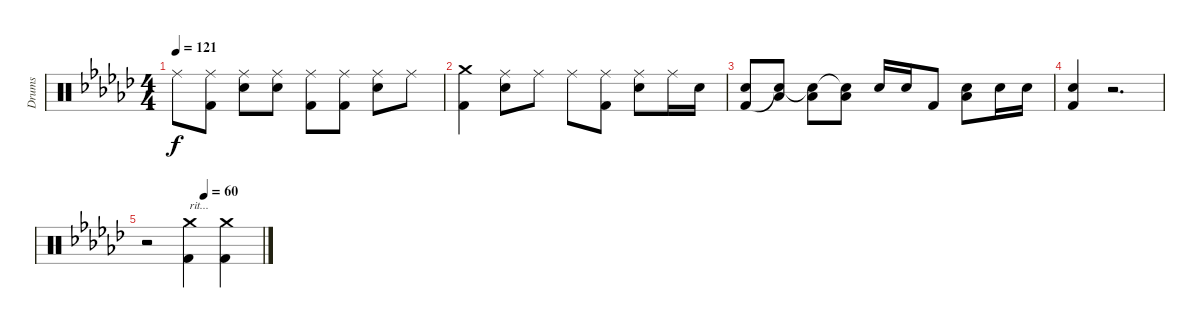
\track ("Drums" "Drums") {instrument percussion}
\staff {score}
\articulation defaults
\ts (4 4)
\tempo 121
\clef neutral
\ks ebminor "Ride (middle)".8{dy f}
("Ride (middle)" "Kick (hit) 2").8 ("Ride (middle)" "Electric Snare (hit)").8 ("Ride (middle)" "Electric Snare (hit)").8 ("Ride (middle)" "Kick (hit) 2").8 ("Ride (middle)" "Kick (hit) 2").8 ("Ride (middle)" "Electric Snare (hit)").8 "Ride (middle)".8 |
("Crash medium (hit)" "Kick (hit) 2").4 ("Ride (middle)" "Electric Snare (hit)").8 "Ride (middle)".8 "Ride (middle)".8 ("Ride (middle)" "Kick (hit) 2").8 ("Ride (middle)" "Electric Snare (hit)").8 "Ride (middle)".16 "Electric Snare (hit)".16 |
("Electric Snare (hit)" "Kick (hit) 2").8 ("Low Floor Tom (hit)" "Snare (hit)"{t}).8 ("Low Floor Tom (hit)" "Snare (hit)"{t}).8 ("Low Floor Tom (hit)" "Snare (hit)"{t}).8 "Electric Snare (hit)".16 "Electric Snare (hit)".16 "Kick (hit) 2".8 ("Electric Snare (hit)" "Low Floor Tom (hit)").8 "Electric Snare (hit)".16 "Electric Snare (hit)".16 |
("Electric Snare (hit)" "Kick (hit) 2").4 r.2{d} |
\tempo (60 0.5)
r.2 ("Crash medium (hit)" "Kick (hit) 2").4{txt "rit..."} ("Crash medium (hit)" "Kick (hit) 2").4
